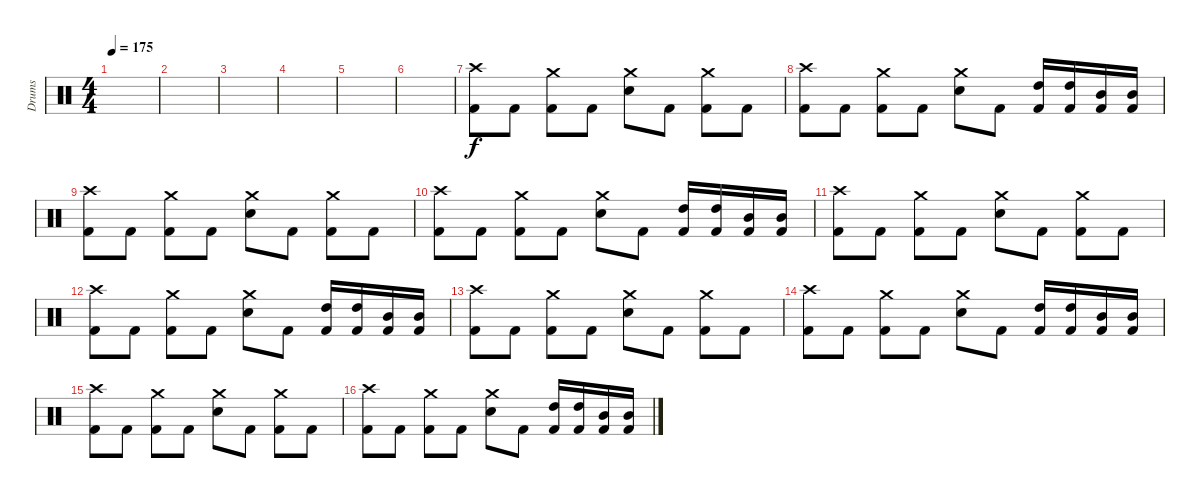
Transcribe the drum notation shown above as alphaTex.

\track ("Drums" "Drums") {instrument percussion}
\staff {score}
\articulation defaults
\ts (4 4)
\tempo 175
\clef neutral
\ks c
|
|
|
|
|
|
("Crash high (hit)" "Kick (hit) 2").8 "Kick (hit) 2".8 ("Crash medium (hit)" "Kick (hit) 2").8 "Kick (hit) 2".8 ("Crash medium (hit)" "Snare (hit) 2").8 "Kick (hit) 2".8 ("Crash medium (hit)" "Kick (hit) 2").8 "Kick (hit) 2".8 |
("Crash high (hit)" "Kick (hit) 2").8 "Kick (hit) 2".8 ("Crash medium (hit)" "Kick (hit) 2").8 "Kick (hit) 2".8 ("Crash medium (hit)" "Snare (hit) 2").8 "Kick (hit) 2".8 ("High Tom (hit)" "Kick (hit) 2").16 ("High Tom (hit)" "Kick (hit) 2").16 ("Mid Tom (hit)" "Kick (hit) 2").16 ("Mid Tom (hit)" "Kick (hit) 2").16 |
("Crash high (hit)" "Kick (hit) 2").8 "Kick (hit) 2".8 ("Crash medium (hit)" "Kick (hit) 2").8 "Kick (hit) 2".8 ("Crash medium (hit)" "Snare (hit) 2").8 "Kick (hit) 2".8 ("Crash medium (hit)" "Kick (hit) 2").8 "Kick (hit) 2".8 |
("Crash high (hit)" "Kick (hit) 2").8 "Kick (hit) 2".8 ("Crash medium (hit)" "Kick (hit) 2").8 "Kick (hit) 2".8 ("Crash medium (hit)" "Snare (hit) 2").8 "Kick (hit) 2".8 ("High Tom (hit)" "Kick (hit) 2").16 ("High Tom (hit)" "Kick (hit) 2").16 ("Mid Tom (hit)" "Kick (hit) 2").16 ("Mid Tom (hit)" "Kick (hit) 2").16 |
("Crash high (hit)" "Kick (hit) 2").8 "Kick (hit) 2".8 ("Crash medium (hit)" "Kick (hit) 2").8 "Kick (hit) 2".8 ("Crash medium (hit)" "Snare (hit) 2").8 "Kick (hit) 2".8 ("Crash medium (hit)" "Kick (hit) 2").8 "Kick (hit) 2".8 |
("Crash high (hit)" "Kick (hit) 2").8 "Kick (hit) 2".8 ("Crash medium (hit)" "Kick (hit) 2").8 "Kick (hit) 2".8 ("Crash medium (hit)" "Snare (hit) 2").8 "Kick (hit) 2".8 ("High Tom (hit)" "Kick (hit) 2").16 ("High Tom (hit)" "Kick (hit) 2").16 ("Mid Tom (hit)" "Kick (hit) 2").16 ("Mid Tom (hit)" "Kick (hit) 2").16 |
("Crash high (hit)" "Kick (hit) 2").8 "Kick (hit) 2".8 ("Crash medium (hit)" "Kick (hit) 2").8 "Kick (hit) 2".8 ("Crash medium (hit)" "Snare (hit) 2").8 "Kick (hit) 2".8 ("Crash medium (hit)" "Kick (hit) 2").8 "Kick (hit) 2".8 |
("Crash high (hit)" "Kick (hit) 2").8 "Kick (hit) 2".8 ("Crash medium (hit)" "Kick (hit) 2").8 "Kick (hit) 2".8 ("Crash medium (hit)" "Snare (hit) 2").8 "Kick (hit) 2".8 ("High Tom (hit)" "Kick (hit) 2").16 ("High Tom (hit)" "Kick (hit) 2").16 ("Mid Tom (hit)" "Kick (hit) 2").16 ("Mid Tom (hit)" "Kick (hit) 2").16 |
("Crash high (hit)" "Kick (hit) 2").8 "Kick (hit) 2".8 ("Crash medium (hit)" "Kick (hit) 2").8 "Kick (hit) 2".8 ("Crash medium (hit)" "Snare (hit) 2").8 "Kick (hit) 2".8 ("Crash medium (hit)" "Kick (hit) 2").8 "Kick (hit) 2".8 |
("Crash high (hit)" "Kick (hit) 2").8 "Kick (hit) 2".8 ("Crash medium (hit)" "Kick (hit) 2").8 "Kick (hit) 2".8 ("Crash medium (hit)" "Snare (hit) 2").8 "Kick (hit) 2".8 ("High Tom (hit)" "Kick (hit) 2").16 ("High Tom (hit)" "Kick (hit) 2").16 ("Mid Tom (hit)" "Kick (hit) 2").16 ("Mid Tom (hit)" "Kick (hit) 2").16
